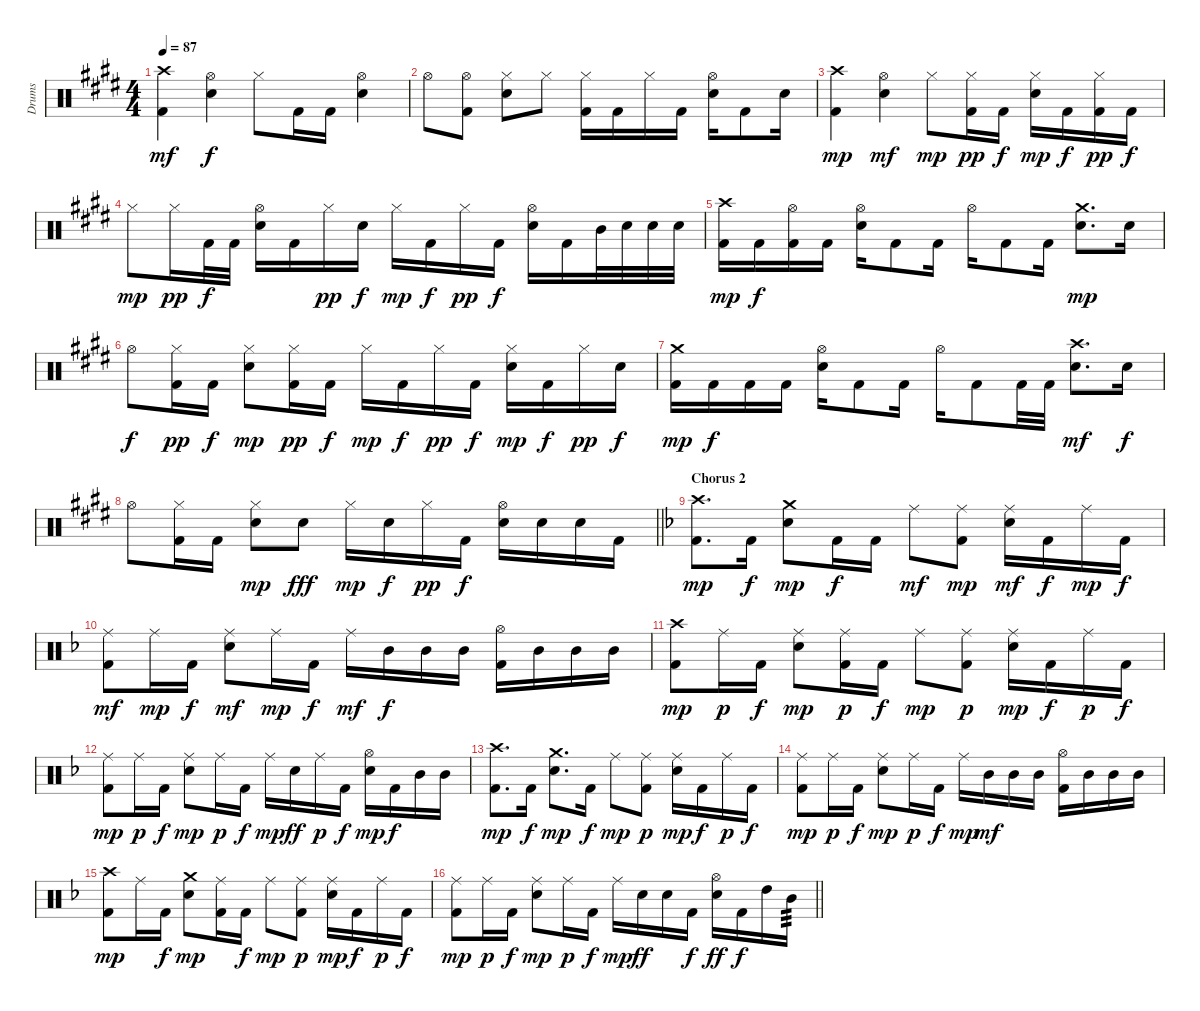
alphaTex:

\track ("Drums" "Drums") {instrument percussion}
\staff {score}
\articulation defaults
\ts (4 4)
\tempo 87
\clef neutral
\ks c#minor
("Kick (hit) 2" "Crash high (hit)").4{dy mf} ("Electric Snare (hit)" "Hi-Hat (open)").4{dy f} "Hi-Hat (closed)".8 "Kick (hit) 2".16 "Kick (hit) 2".16 ("Electric Snare (hit)" "Hi-Hat (open)").4 |
"Hi-Hat (open)".8 ("Kick (hit) 2" "Hi-Hat (open)").8 ("Electric Snare (hit)" "Hi-Hat (closed)").8 "Hi-Hat (closed)".8 ("Kick (hit) 2" "Hi-Hat (closed)").16 "Kick (hit) 2".16 "Hi-Hat (closed)".16 "Kick (hit) 2".16 ("Electric Snare (hit)" "Hi-Hat (open)").16 "Kick (hit) 2".8 "Electric Snare (hit)".16 |
("Kick (hit) 2" "Crash high (hit)").4{dy mp} ("Electric Snare (hit)" "Hi-Hat (open)").4{dy mf} "Hi-Hat (closed)".8{dy mp} ("Kick (hit) 2" "Hi-Hat (closed)").16{dy pp} "Kick (hit) 2".16{dy f} ("Electric Snare (hit)" "Hi-Hat (closed)").16{dy mp} "Kick (hit) 2".16{dy f} ("Kick (hit) 2" "Hi-Hat (closed)").16{dy pp} "Kick (hit) 2".16{dy f} |
"Hi-Hat (closed)".8{dy mp} "Hi-Hat (closed)".16{dy pp} "Kick (hit) 2".32{dy f} "Kick (hit) 2".32 ("Electric Snare (hit)" "Hi-Hat (open)").16 "Kick (hit) 2".16 "Hi-Hat (closed)".16{dy pp} "Electric Snare (hit)".16{dy f} "Hi-Hat (closed)".16{dy mp} "Kick (hit) 2".16{dy f} "Hi-Hat (closed)".16{dy pp} "Kick (hit) 2".16{dy f} ("Electric Snare (hit)" "Hi-Hat (open)").16 "Kick (hit) 2".16 "Mid Tom (hit)".32 "Electric Snare (hit)".32 "Electric Snare (hit)".32 "Electric Snare (hit)".32 |
("Crash high (hit)" "Kick (hit) 2").16{dy mp} "Kick (hit) 2".16{dy f} ("Kick (hit) 2" "Hi-Hat (open)").16 "Kick (hit) 2".16 ("Hi-Hat (open)" "Electric Snare (hit)").16 "Kick (hit) 2".8 "Kick (hit) 2".16 "Hi-Hat (open)".16 "Kick (hit) 2".8 "Kick (hit) 2".16 ("Crash medium (hit)" "Electric Snare (hit)").8{d dy mp} "Electric Snare (hit)".16 |
"Hi-Hat (open)".8{dy f} ("Hi-Hat (closed)" "Kick (hit) 2").16{dy pp} "Kick (hit) 2".16{dy f} ("Hi-Hat (closed)" "Electric Snare (hit)").8{dy mp} ("Hi-Hat (closed)" "Kick (hit) 2").16{dy pp} "Kick (hit) 2".16{dy f} "Hi-Hat (closed)".16{dy mp} "Kick (hit) 2".16{dy f} "Hi-Hat (closed)".16{dy pp} "Kick (hit) 2".16{dy f} ("Electric Snare (hit)" "Hi-Hat (closed)").16{dy mp} "Kick (hit) 2".16{dy f} "Hi-Hat (closed)".16{dy pp} "Electric Snare (hit)".16{dy f} |
("Kick (hit) 2" "Crash medium (hit)").16{dy mp} "Kick (hit) 2".16{dy f} "Kick (hit) 2".16 "Kick (hit) 2".16 ("Electric Snare (hit)" "Hi-Hat (open)").16 "Kick (hit) 2".8 "Kick (hit) 2".16 "Hi-Hat (open)".16 "Kick (hit) 2".8 "Kick (hit) 2".32 "Kick (hit) 2".32 ("Electric Snare (hit)" "Crash high (hit)").8{d dy mf} "Electric Snare (hit)".16{dy f} |
\barLineRight lightlight "Hi-Hat (open)".8
("Hi-Hat (closed)" "Kick (hit) 2").16 "Kick (hit) 2".16 ("Electric Snare (hit)" "Hi-Hat (closed)").8{dy mp} "Electric Snare (hit)".8{dy fff} "Hi-Hat (closed)".16{dy mp} "Electric Snare (hit)".16{dy f} "Hi-Hat (closed)".16{dy pp} "Kick (hit) 2".16{dy f} ("Hi-Hat (open)" "Electric Snare (hit)").16 "Electric Snare (hit)".16 "Electric Snare (hit)".16 "Kick (hit) 2".16 |
\section ("" "Chorus 2")
\ks dminor
("Crash high (hit)" "Kick (hit) 2").8{d dy mp} "Kick (hit) 2".16{dy f} ("Crash medium (hit)" "Electric Snare (hit)").8{dy mp} "Kick (hit) 2".16{dy f} "Kick (hit) 2".16 "Ride (middle)".8{dy mf} ("Ride (middle)" "Kick (hit) 2").8{dy mp} ("Ride (middle)" "Electric Snare (hit)").16{dy mf} "Kick (hit) 2".16{dy f} "Ride (middle)".16{dy mp} "Kick (hit) 2".16{dy f} |
("Ride (middle)" "Kick (hit) 2").8{dy mf} "Ride (middle)".16{dy mp} "Kick (hit) 2".16{dy f} ("Electric Snare (hit)" "Ride (middle)").8{dy mf} "Ride (middle)".16{dy mp} "Kick (hit) 2".16{dy f} "Ride (middle)".16{dy mf} "Mid Tom (hit)".16{dy f} "Mid Tom (hit)".16 "Mid Tom (hit)".16 ("Hi-Hat (open)" "Kick (hit) 2").16 "Mid Tom (hit)".16 "Mid Tom (hit)".16 "Mid Tom (hit)".16 |
("Crash high (hit)" "Kick (hit) 2").8{dy mp} "Ride (middle)".16{dy p} "Kick (hit) 2".16{dy f} ("Electric Snare (hit)" "Ride (middle)").8{dy mp} ("Kick (hit) 2" "Ride (middle)").16{dy p} "Kick (hit) 2".16{dy f} "Ride (middle)".8{dy mp} ("Ride (middle)" "Kick (hit) 2").8{dy p} ("Electric Snare (hit)" "Ride (middle)").16{dy mp} "Kick (hit) 2".16{dy f} "Ride (middle)".16{dy p} "Kick (hit) 2".16{dy f} |
("Ride (middle)" "Kick (hit) 2").8{dy mp} "Ride (middle)".16{dy p} "Kick (hit) 2".16{dy f} ("Electric Snare (hit)" "Ride (middle)").8{dy mp} "Ride (middle)".16{dy p} "Kick (hit) 2".16{dy f} "Ride (middle)".16{dy mp} "Electric Snare (hit)".16{dy ff} "Ride (middle)".16{dy p} "Kick (hit) 2".16{dy f} ("Electric Snare (hit)" "Hi-Hat (open)").16{dy mp} "Kick (hit) 2".16{dy f} "Mid Tom (hit)".16 "Mid Tom (hit)".16 |
("Crash high (hit)" "Kick (hit) 2").8{d dy mp} "Kick (hit) 2".16{dy f} ("Crash medium (hit)" "Electric Snare (hit)").8{d dy mp} "Kick (hit) 2".16{dy f} "Ride (middle)".8{dy mp} ("Ride (middle)" "Kick (hit) 2").8{dy p} ("Ride (middle)" "Electric Snare (hit)").16{dy mp} "Kick (hit) 2".16{dy f} "Ride (middle)".16{dy p} "Kick (hit) 2".16{dy f} |
("Ride (middle)" "Kick (hit) 2").8{dy mp} "Ride (middle)".16{dy p} "Kick (hit) 2".16{dy f} ("Electric Snare (hit)" "Ride (middle)").8{dy mp} "Ride (middle)".16{dy p} "Kick (hit) 2".16{dy f} "Ride (middle)".16{dy mp} "Mid Tom (hit)".16{dy mf} "Mid Tom (hit)".16 "Mid Tom (hit)".16 ("Hi-Hat (open)" "Kick (hit) 2").16 "Mid Tom (hit)".16 "Mid Tom (hit)".16 "Mid Tom (hit)".16 |
("Crash high (hit)" "Kick (hit) 2").8{dy mp} "Ride (middle)".16 "Kick (hit) 2".16{dy f} ("Electric Snare (hit)" "Crash medium (hit)").8{dy mp} ("Kick (hit) 2" "Ride (middle)").16 "Kick (hit) 2".16{dy f} "Ride (middle)".8{dy mp} ("Ride (middle)" "Kick (hit) 2").8{dy p} ("Electric Snare (hit)" "Ride (middle)").16{dy mp} "Kick (hit) 2".16{dy f} "Ride (middle)".16{dy p} "Kick (hit) 2".16{dy f} |
\barLineRight lightlight
("Ride (middle)" "Kick (hit) 2").8{dy mp} "Ride (middle)".16{dy p} "Kick (hit) 2".16{dy f} ("Electric Snare (hit)" "Ride (middle)").8{dy mp} "Ride (middle)".16{dy p} "Kick (hit) 2".16{dy f} "Ride (middle)".16{dy mp} "Electric Snare (hit)".16{dy ff} "Electric Snare (hit)".16 "Kick (hit) 2".16{dy f} ("Hi-Hat (open)" "Electric Snare (hit)").16{dy ff} "Kick (hit) 2".16{dy f} "High Tom (hit)".16 "Mid Tom (hit)".16{tp 3}
